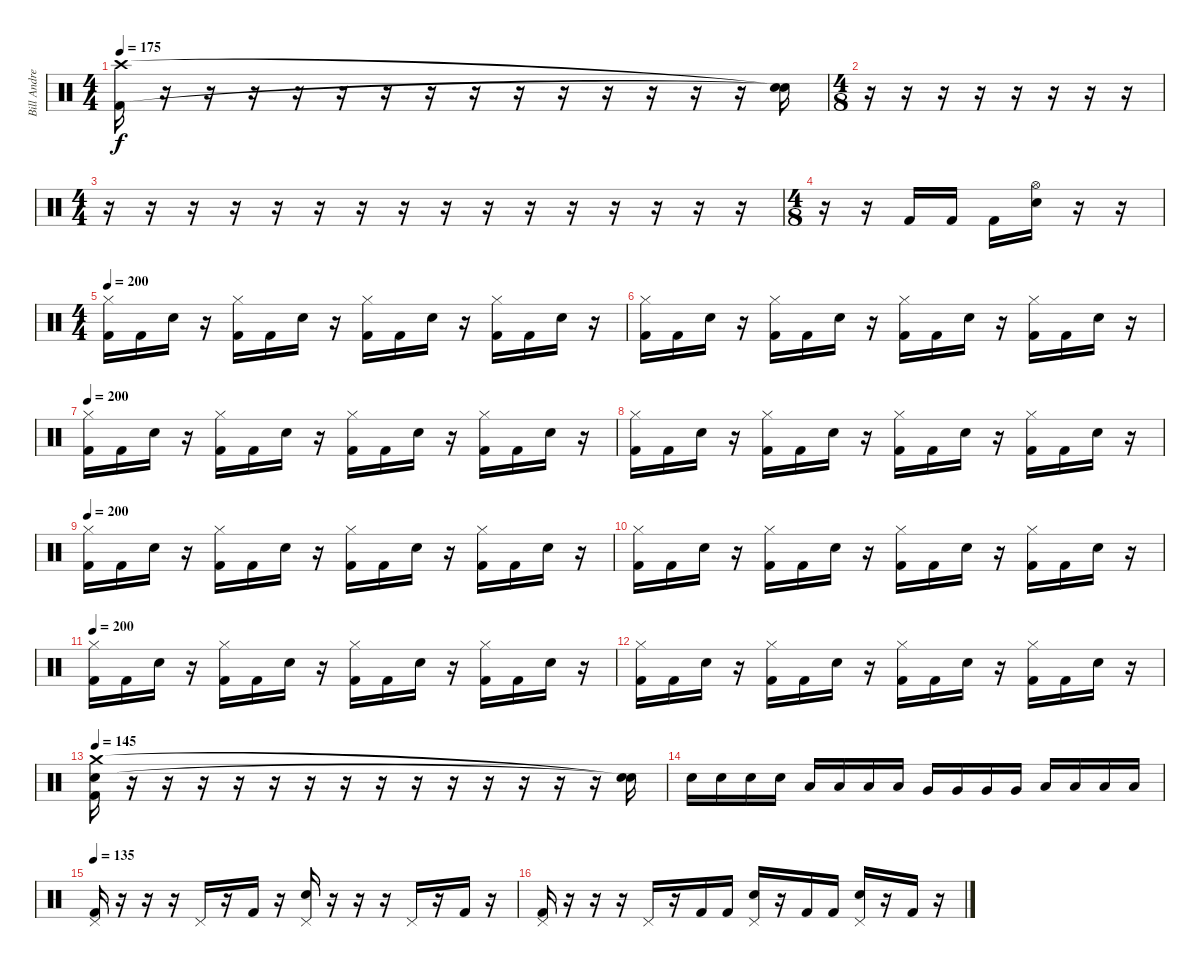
\track ("Bill Andrews" "Bill Andre") {instrument percussion}
\staff {score}
\articulation defaults
\ts (4 4)
\tempo 175
\clef neutral
\ks c
("Crash high (hit)" "Kick (hit) 2").16{dy f} r.16 r.16 r.16 r.16 r.16 r.16 r.16 r.16 r.16 r.16 r.16 r.16 r.16 r.16 ("Snare (hit)"{t} "Snare (hit)"{t}).16 |
\ts (4 8)
r.16 r.16 r.16 r.16 r.16 r.16 r.16 r.16 |
\ts (4 4)
r.16 r.16 r.16 r.16 r.16 r.16 r.16 r.16 r.16 r.16 r.16 r.16 r.16 r.16 r.16 r.16 |
\ts (4 8)
r.16 r.16 "Kick (hit) 2".16 "Kick (hit) 2".16 "Kick (hit) 2".16 ("Hi-Hat (open)" "Snare (hit) 2").16 r.16 r.16 |
\ts (4 4)
\tempo 200
("Hi-Hat (closed)" "Kick (hit) 2").16 "Kick (hit) 2".16 "Snare (hit) 2".16 r.16 ("Hi-Hat (closed)" "Kick (hit) 2").16 "Kick (hit) 2".16 "Snare (hit) 2".16 r.16 ("Hi-Hat (closed)" "Kick (hit) 2").16 "Kick (hit) 2".16 "Snare (hit) 2".16 r.16 ("Hi-Hat (closed)" "Kick (hit) 2").16 "Kick (hit) 2".16 "Snare (hit) 2".16 r.16 |
("Hi-Hat (closed)" "Kick (hit) 2").16 "Kick (hit) 2".16 "Snare (hit) 2".16 r.16 ("Hi-Hat (closed)" "Kick (hit) 2").16 "Kick (hit) 2".16 "Snare (hit) 2".16 r.16 ("Hi-Hat (closed)" "Kick (hit) 2").16 "Kick (hit) 2".16 "Snare (hit) 2".16 r.16 ("Hi-Hat (closed)" "Kick (hit) 2").16 "Kick (hit) 2".16 "Snare (hit) 2".16 r.16 |
\tempo 200
("Hi-Hat (closed)" "Kick (hit) 2").16 "Kick (hit) 2".16 "Snare (hit) 2".16 r.16 ("Hi-Hat (closed)" "Kick (hit) 2").16 "Kick (hit) 2".16 "Snare (hit) 2".16 r.16 ("Hi-Hat (closed)" "Kick (hit) 2").16 "Kick (hit) 2".16 "Snare (hit) 2".16 r.16 ("Hi-Hat (closed)" "Kick (hit) 2").16 "Kick (hit) 2".16 "Snare (hit) 2".16 r.16 |
("Hi-Hat (closed)" "Kick (hit) 2").16 "Kick (hit) 2".16 "Snare (hit) 2".16 r.16 ("Hi-Hat (closed)" "Kick (hit) 2").16 "Kick (hit) 2".16 "Snare (hit) 2".16 r.16 ("Hi-Hat (closed)" "Kick (hit) 2").16 "Kick (hit) 2".16 "Snare (hit) 2".16 r.16 ("Hi-Hat (closed)" "Kick (hit) 2").16 "Kick (hit) 2".16 "Snare (hit) 2".16 r.16 |
\tempo 200
("Hi-Hat (closed)" "Kick (hit) 2").16 "Kick (hit) 2".16 "Snare (hit) 2".16 r.16 ("Hi-Hat (closed)" "Kick (hit) 2").16 "Kick (hit) 2".16 "Snare (hit) 2".16 r.16 ("Hi-Hat (closed)" "Kick (hit) 2").16 "Kick (hit) 2".16 "Snare (hit) 2".16 r.16 ("Hi-Hat (closed)" "Kick (hit) 2").16 "Kick (hit) 2".16 "Snare (hit) 2".16 r.16 |
("Hi-Hat (closed)" "Kick (hit) 2").16 "Kick (hit) 2".16 "Snare (hit) 2".16 r.16 ("Hi-Hat (closed)" "Kick (hit) 2").16 "Kick (hit) 2".16 "Snare (hit) 2".16 r.16 ("Hi-Hat (closed)" "Kick (hit) 2").16 "Kick (hit) 2".16 "Snare (hit) 2".16 r.16 ("Hi-Hat (closed)" "Kick (hit) 2").16 "Kick (hit) 2".16 "Snare (hit) 2".16 r.16 |
\tempo 200
("Hi-Hat (closed)" "Kick (hit) 2").16 "Kick (hit) 2".16 "Snare (hit) 2".16 r.16 ("Hi-Hat (closed)" "Kick (hit) 2").16 "Kick (hit) 2".16 "Snare (hit) 2".16 r.16 ("Hi-Hat (closed)" "Kick (hit) 2").16 "Kick (hit) 2".16 "Snare (hit) 2".16 r.16 ("Hi-Hat (closed)" "Kick (hit) 2").16 "Kick (hit) 2".16 "Snare (hit) 2".16 r.16 |
("Hi-Hat (closed)" "Kick (hit) 2").16 "Kick (hit) 2".16 "Snare (hit) 2".16 r.16 ("Hi-Hat (closed)" "Kick (hit) 2").16 "Kick (hit) 2".16 "Snare (hit) 2".16 r.16 ("Hi-Hat (closed)" "Kick (hit) 2").16 "Kick (hit) 2".16 "Snare (hit) 2".16 r.16 ("Hi-Hat (closed)" "Kick (hit) 2").16 "Kick (hit) 2".16 "Snare (hit) 2".16 r.16 |
\tempo 145
("Snare (hit) 2" "Crash medium (hit)" "Kick (hit) 2").16 r.16 r.16 r.16 r.16 r.16 r.16 r.16 r.16 r.16 r.16 r.16 r.16 r.16 r.16 ("Snare (hit)"{t} "Snare (hit)"{t}).16 |
"Snare (hit) 2".16 "Snare (hit) 2".16 "Snare (hit) 2".16 "Snare (hit) 2".16 "Low Tom (hit)".16 "Low Tom (hit)".16 "Low Tom (hit)".16 "Low Tom (hit)".16 "Very Low Tom (hit)".16 "Very Low Tom (hit)".16 "Very Low Tom (hit)".16 "Very Low Tom (hit)".16 "Low Floor Tom (hit)".16 "Low Floor Tom (hit)".16 "Low Floor Tom (hit)".16 "Low Floor Tom (hit)".16 |
\tempo 135
("Pedal Hi-Hat (hit)" "Kick (hit) 2").16 r.16 r.16 r.16 "Pedal Hi-Hat (hit)".16 r.16 "Kick (hit) 2".16 r.16 ("Pedal Hi-Hat (hit)" "Snare (hit) 2").16 r.16 r.16 r.16 "Pedal Hi-Hat (hit)".16 r.16 "Kick (hit) 2".16 r.16 |
("Pedal Hi-Hat (hit)" "Kick (hit) 2").16 r.16 r.16 r.16 "Pedal Hi-Hat (hit)".16 r.16 "Kick (hit) 2".16 "Kick (hit) 2".16 ("Pedal Hi-Hat (hit)" "Snare (hit) 2").16 r.16 "Kick (hit) 2".16 "Kick (hit) 2".16 ("Pedal Hi-Hat (hit)" "Snare (hit) 2").16 r.16 "Kick (hit) 2".16 r.16
